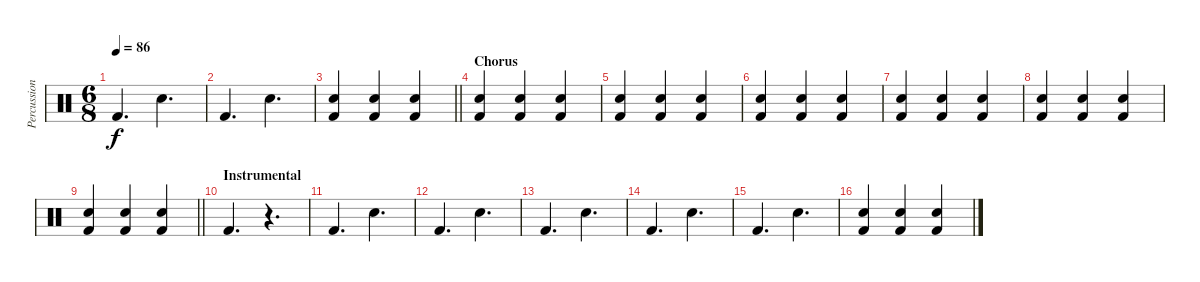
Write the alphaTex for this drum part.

\track ("Percussion" "Percussion") {instrument percussion}
\staff {score}
\articulation defaults
\ts (6 8)
\tempo 86
\clef neutral
\ks c "Kick (hit) 2".4{d dy f} "Snare (hit) 2".4{d}
|
"Kick (hit) 2".4{d} "Snare (hit) 2".4{d} |
\barLineRight lightlight
("Snare (hit) 2" "Kick (hit) 2").4 ("Snare (hit) 2" "Kick (hit) 2").4 ("Snare (hit) 2" "Kick (hit) 2").4 |
\section ("" "Chorus")
("Snare (hit) 2" "Kick (hit) 2").4 ("Snare (hit) 2" "Kick (hit) 2").4 ("Snare (hit) 2" "Kick (hit) 2").4 |
("Snare (hit) 2" "Kick (hit) 2").4 ("Snare (hit) 2" "Kick (hit) 2").4 ("Snare (hit) 2" "Kick (hit) 2").4 |
("Snare (hit) 2" "Kick (hit) 2").4 ("Snare (hit) 2" "Kick (hit) 2").4 ("Snare (hit) 2" "Kick (hit) 2").4 |
("Snare (hit) 2" "Kick (hit) 2").4 ("Snare (hit) 2" "Kick (hit) 2").4 ("Snare (hit) 2" "Kick (hit) 2").4 |
("Snare (hit) 2" "Kick (hit) 2").4 ("Snare (hit) 2" "Kick (hit) 2").4 ("Snare (hit) 2" "Kick (hit) 2").4 |
\barLineRight lightlight
("Snare (hit) 2" "Kick (hit) 2").4 ("Snare (hit) 2" "Kick (hit) 2").4 ("Snare (hit) 2" "Kick (hit) 2").4 |
\section ("" "Instrumental")
"Kick (hit) 2".4{d} r.4{d} |
"Kick (hit) 2".4{d} "Snare (hit) 2".4{d} |
"Kick (hit) 2".4{d} "Snare (hit) 2".4{d} |
"Kick (hit) 2".4{d} "Snare (hit) 2".4{d} |
"Kick (hit) 2".4{d} "Snare (hit) 2".4{d} |
"Kick (hit) 2".4{d} "Snare (hit) 2".4{d} |
("Snare (hit) 2" "Kick (hit) 2").4 ("Snare (hit) 2" "Kick (hit) 2").4 ("Snare (hit) 2" "Kick (hit) 2").4
